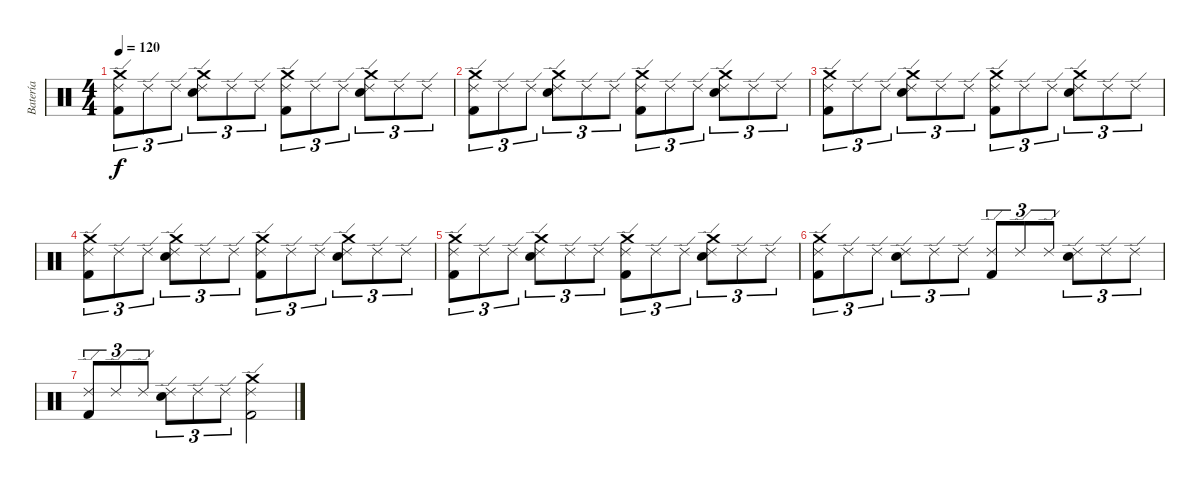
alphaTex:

\track ("Batería" "Batería") {instrument percussion}
\staff {score}
\articulation defaults
\ts (4 4)
\tempo 120
\clef neutral
\ks c
("Ride (edge) 2" "Kick (hit) 2" "Crash medium (hit)").8{tu (3 2) dy f} "Ride (edge) 2".8{tu (3 2)} "Ride (edge) 2".8{tu (3 2)} ("Ride (edge) 2" "Electric Snare (hit)" "Crash medium (hit)").8{tu (3 2)} "Ride (edge) 2".8{tu (3 2)} "Ride (edge) 2".8{tu (3 2)} ("Ride (edge) 2" "Kick (hit) 2" "Crash medium (hit)").8{tu (3 2)} "Ride (edge) 2".8{tu (3 2)} "Ride (edge) 2".8{tu (3 2)} ("Ride (edge) 2" "Electric Snare (hit)" "Crash medium (hit)").8{tu (3 2)} "Ride (edge) 2".8{tu (3 2)} "Ride (edge) 2".8{tu (3 2)} |
("Ride (edge) 2" "Kick (hit) 2" "Crash medium (hit)").8{tu (3 2)} "Ride (edge) 2".8{tu (3 2)} "Ride (edge) 2".8{tu (3 2)} ("Ride (edge) 2" "Electric Snare (hit)" "Crash medium (hit)").8{tu (3 2)} "Ride (edge) 2".8{tu (3 2)} "Ride (edge) 2".8{tu (3 2)} ("Ride (edge) 2" "Kick (hit) 2" "Crash medium (hit)").8{tu (3 2)} "Ride (edge) 2".8{tu (3 2)} "Ride (edge) 2".8{tu (3 2)} ("Ride (edge) 2" "Electric Snare (hit)" "Crash medium (hit)").8{tu (3 2)} "Ride (edge) 2".8{tu (3 2)} "Ride (edge) 2".8{tu (3 2)} |
("Ride (edge) 2" "Kick (hit) 2" "Crash medium (hit)").8{tu (3 2)} "Ride (edge) 2".8{tu (3 2)} "Ride (edge) 2".8{tu (3 2)} ("Ride (edge) 2" "Electric Snare (hit)" "Crash medium (hit)").8{tu (3 2)} "Ride (edge) 2".8{tu (3 2)} "Ride (edge) 2".8{tu (3 2)} ("Ride (edge) 2" "Kick (hit) 2" "Crash medium (hit)").8{tu (3 2)} "Ride (edge) 2".8{tu (3 2)} "Ride (edge) 2".8{tu (3 2)} ("Ride (edge) 2" "Electric Snare (hit)" "Crash medium (hit)").8{tu (3 2)} "Ride (edge) 2".8{tu (3 2)} "Ride (edge) 2".8{tu (3 2)} |
("Ride (edge) 2" "Kick (hit) 2" "Crash medium (hit)").8{tu (3 2)} "Ride (edge) 2".8{tu (3 2)} "Ride (edge) 2".8{tu (3 2)} ("Ride (edge) 2" "Electric Snare (hit)" "Crash medium (hit)").8{tu (3 2)} "Ride (edge) 2".8{tu (3 2)} "Ride (edge) 2".8{tu (3 2)} ("Ride (edge) 2" "Kick (hit) 2" "Crash medium (hit)").8{tu (3 2)} "Ride (edge) 2".8{tu (3 2)} "Ride (edge) 2".8{tu (3 2)} ("Ride (edge) 2" "Electric Snare (hit)" "Crash medium (hit)").8{tu (3 2)} "Ride (edge) 2".8{tu (3 2)} "Ride (edge) 2".8{tu (3 2)} |
("Ride (edge) 2" "Kick (hit) 2" "Crash medium (hit)").8{tu (3 2)} "Ride (edge) 2".8{tu (3 2)} "Ride (edge) 2".8{tu (3 2)} ("Ride (edge) 2" "Electric Snare (hit)" "Crash medium (hit)").8{tu (3 2)} "Ride (edge) 2".8{tu (3 2)} "Ride (edge) 2".8{tu (3 2)} ("Ride (edge) 2" "Kick (hit) 2" "Crash medium (hit)").8{tu (3 2)} "Ride (edge) 2".8{tu (3 2)} "Ride (edge) 2".8{tu (3 2)} ("Ride (edge) 2" "Electric Snare (hit)" "Crash medium (hit)").8{tu (3 2)} "Ride (edge) 2".8{tu (3 2)} "Ride (edge) 2".8{tu (3 2)} |
("Ride (edge) 2" "Kick (hit) 2" "Crash medium (hit)").8{tu (3 2)} "Ride (edge) 2".8{tu (3 2)} "Ride (edge) 2".8{tu (3 2)} ("Ride (edge) 2" "Electric Snare (hit)").8{tu (3 2)} "Ride (edge) 2".8{tu (3 2)} "Ride (edge) 2".8{tu (3 2)} ("Ride (edge) 2" "Kick (hit) 2").8{tu (3 2)} "Ride (edge) 2".8{tu (3 2)} "Ride (edge) 2".8{tu (3 2)} ("Ride (edge) 2" "Electric Snare (hit)").8{tu (3 2)} "Ride (edge) 2".8{tu (3 2)} "Ride (edge) 2".8{tu (3 2)} |
("Ride (edge) 2" "Kick (hit) 2").8{tu (3 2)} "Ride (edge) 2".8{tu (3 2)} "Ride (edge) 2".8{tu (3 2)} ("Ride (edge) 2" "Electric Snare (hit)").8{tu (3 2)} "Ride (edge) 2".8{tu (3 2)} "Ride (edge) 2".8{tu (3 2)} ("Ride (edge) 2" "Kick (hit) 2" "Crash medium (hit)").2
